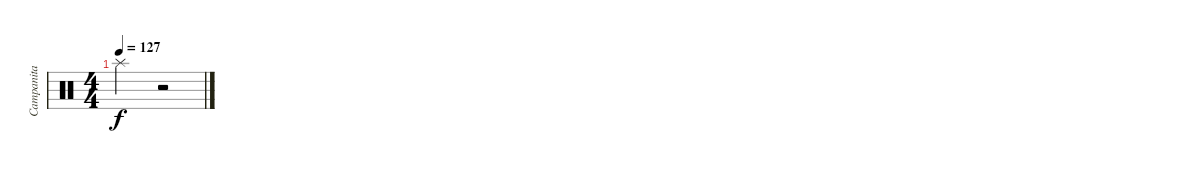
\track ("Campanita" "Campanita") {instrument percussion}
\staff {score}
\articulation defaults
\ts (4 4)
\tempo 127
\clef neutral
\ks c "Splash (hit)"{t}.2{dy f}
r.2
